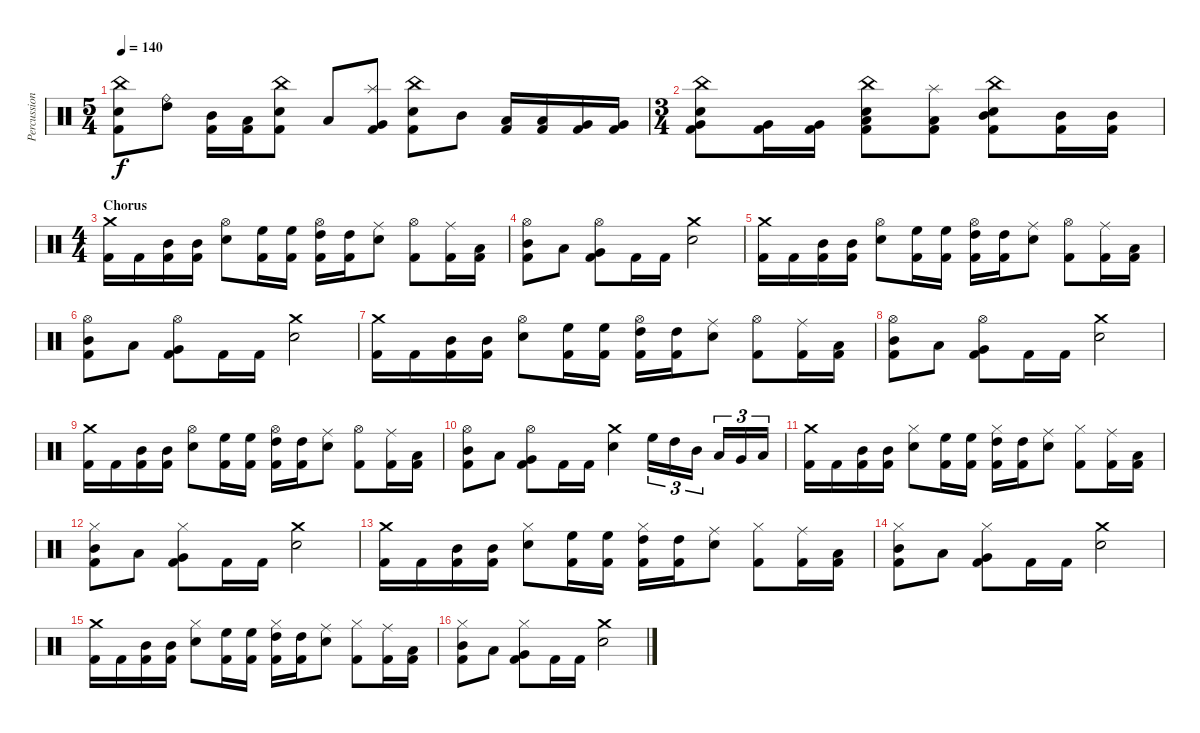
\track ("Percussion" "Percussion") {instrument percussion}
\staff {score}
\articulation defaults
\ts (5 4)
\tempo 140
\clef neutral
\ks c
("China (hit)" "Electric Snare (hit)" "Kick (hit) 2").8{dy f} ("Ride (bell)" "High Tom (hit)").8 ("Mid Tom (hit)" "Kick (hit) 2").16 ("Low Tom (hit)" "Kick (hit) 2").16 ("China (hit)" "Electric Snare (hit)" "Kick (hit) 2").8 "Low Tom (hit)".8 ("Splash (hit)" "Very Low Tom (hit)" "Kick (hit) 2").8 ("China (hit)" "Electric Snare (hit)" "Kick (hit) 2").8 "Mid Tom (hit)".8 ("Low Tom (hit)" "Kick (hit) 2").16 ("Low Tom (hit)" "Kick (hit) 2").16 ("Very Low Tom (hit)" "Kick (hit) 2").16 ("Very Low Tom (hit)" "Kick (hit) 2").16 |
\ts (3 4)
("China (hit)" "Very Low Tom (hit)" "Electric Snare (hit)" "Kick (hit) 2").8 ("Very Low Tom (hit)" "Kick (hit) 2").16 ("Very Low Tom (hit)" "Kick (hit) 2").16 ("China (hit)" "Low Tom (hit)" "Electric Snare (hit)" "Kick (hit) 2").8 ("Splash (hit)" "Low Tom (hit)" "Kick (hit) 2").8 ("China (hit)" "Mid Tom (hit)" "Electric Snare (hit)" "Kick (hit) 2").8 ("Mid Tom (hit)" "Kick (hit) 2").16 ("Mid Tom (hit)" "Kick (hit) 2").16 |
\ts (4 4)
\section ("" "Chorus")
("Crash medium (hit)" "Kick (hit) 2").16 "Kick (hit) 2".16 ("Mid Tom (hit)" "Kick (hit) 2").16 ("Mid Tom (hit)" "Kick (hit) 2").16 ("Hi-Hat (open)" "Electric Snare (hit)").8 ("High Floor Tom (hit)" "Kick (hit) 2").16 ("High Floor Tom (hit)" "Kick (hit) 2").16 ("Hi-Hat (open)" "High Tom (hit)" "Kick (hit) 2").16 ("High Tom (hit)" "Kick (hit) 2").16 ("Ride (middle)" "Electric Snare (hit)").8 ("Hi-Hat (open)" "Kick (hit) 2").8 ("Ride (middle)" "Kick (hit) 2").16 ("Low Tom (hit)" "Kick (hit) 2").16 |
("Hi-Hat (open)" "Mid Tom (hit)" "Kick (hit) 2").8 "Low Tom (hit)".8 ("Hi-Hat (open)" "Very Low Tom (hit)" "Kick (hit) 2").8 "Kick (hit) 2".16 "Kick (hit) 2".16 ("Crash medium (hit)" "Electric Snare (hit)").2 |
("Crash medium (hit)" "Kick (hit) 2").16 "Kick (hit) 2".16 ("Mid Tom (hit)" "Kick (hit) 2").16 ("Mid Tom (hit)" "Kick (hit) 2").16 ("Hi-Hat (open)" "Electric Snare (hit)").8 ("High Floor Tom (hit)" "Kick (hit) 2").16 ("High Floor Tom (hit)" "Kick (hit) 2").16 ("Hi-Hat (open)" "High Tom (hit)" "Kick (hit) 2").16 ("High Tom (hit)" "Kick (hit) 2").16 ("Ride (middle)" "Electric Snare (hit)").8 ("Hi-Hat (open)" "Kick (hit) 2").8 ("Ride (middle)" "Kick (hit) 2").16 ("Low Tom (hit)" "Kick (hit) 2").16 |
("Hi-Hat (open)" "Mid Tom (hit)" "Kick (hit) 2").8 "Low Tom (hit)".8 ("Hi-Hat (open)" "Very Low Tom (hit)" "Kick (hit) 2").8 "Kick (hit) 2".16 "Kick (hit) 2".16 ("Crash medium (hit)" "Electric Snare (hit)").2 |
("Crash medium (hit)" "Kick (hit) 2").16 "Kick (hit) 2".16 ("Mid Tom (hit)" "Kick (hit) 2").16 ("Mid Tom (hit)" "Kick (hit) 2").16 ("Hi-Hat (open)" "Electric Snare (hit)").8 ("High Floor Tom (hit)" "Kick (hit) 2").16 ("High Floor Tom (hit)" "Kick (hit) 2").16 ("Hi-Hat (open)" "High Tom (hit)" "Kick (hit) 2").16 ("High Tom (hit)" "Kick (hit) 2").16 ("Ride (middle)" "Electric Snare (hit)").8 ("Hi-Hat (open)" "Kick (hit) 2").8 ("Ride (middle)" "Kick (hit) 2").16 ("Low Tom (hit)" "Kick (hit) 2").16 |
("Hi-Hat (open)" "Mid Tom (hit)" "Kick (hit) 2").8 "Low Tom (hit)".8 ("Hi-Hat (open)" "Very Low Tom (hit)" "Kick (hit) 2").8 "Kick (hit) 2".16 "Kick (hit) 2".16 ("Crash medium (hit)" "Electric Snare (hit)").2 |
("Crash medium (hit)" "Kick (hit) 2").16 "Kick (hit) 2".16 ("Mid Tom (hit)" "Kick (hit) 2").16 ("Mid Tom (hit)" "Kick (hit) 2").16 ("Hi-Hat (open)" "Electric Snare (hit)").8 ("High Floor Tom (hit)" "Kick (hit) 2").16 ("High Floor Tom (hit)" "Kick (hit) 2").16 ("Hi-Hat (open)" "High Tom (hit)" "Kick (hit) 2").16 ("High Tom (hit)" "Kick (hit) 2").16 ("Ride (middle)" "Electric Snare (hit)").8 ("Hi-Hat (open)" "Kick (hit) 2").8 ("Ride (middle)" "Kick (hit) 2").16 ("Low Tom (hit)" "Kick (hit) 2").16 |
("Hi-Hat (open)" "Mid Tom (hit)" "Kick (hit) 2").8 "Low Tom (hit)".8 ("Hi-Hat (open)" "Very Low Tom (hit)" "Kick (hit) 2").8 "Kick (hit) 2".16 "Kick (hit) 2".16 ("Crash medium (hit)" "Electric Snare (hit)").4 "High Floor Tom (hit)".16{tu (3 2)} "High Tom (hit)".16{tu (3 2)} "Mid Tom (hit)".16{tu (3 2)} "Low Tom (hit)".16{tu (3 2)} "Very Low Tom (hit)".16{tu (3 2)} "Low Floor Tom (hit)".16{tu (3 2)} |
("Crash medium (hit)" "Kick (hit) 2").16 "Kick (hit) 2".16 ("Mid Tom (hit)" "Kick (hit) 2").16 ("Mid Tom (hit)" "Kick (hit) 2").16 ("Hi-Hat (closed)" "Electric Snare (hit)").8 ("High Floor Tom (hit)" "Kick (hit) 2").16 ("High Floor Tom (hit)" "Kick (hit) 2").16 ("Hi-Hat (closed)" "High Tom (hit)" "Kick (hit) 2").16 ("High Tom (hit)" "Kick (hit) 2").16 ("Ride (middle)" "Electric Snare (hit)").8 ("Hi-Hat (closed)" "Kick (hit) 2").8 ("Ride (middle)" "Kick (hit) 2").16 ("Low Tom (hit)" "Kick (hit) 2").16 |
("Hi-Hat (closed)" "Mid Tom (hit)" "Kick (hit) 2").8 "Low Tom (hit)".8 ("Hi-Hat (closed)" "Very Low Tom (hit)" "Kick (hit) 2").8 "Kick (hit) 2".16 "Kick (hit) 2".16 ("Crash medium (hit)" "Electric Snare (hit)").2 |
("Crash medium (hit)" "Kick (hit) 2").16 "Kick (hit) 2".16 ("Mid Tom (hit)" "Kick (hit) 2").16 ("Mid Tom (hit)" "Kick (hit) 2").16 ("Hi-Hat (closed)" "Electric Snare (hit)").8 ("High Floor Tom (hit)" "Kick (hit) 2").16 ("High Floor Tom (hit)" "Kick (hit) 2").16 ("Hi-Hat (closed)" "High Tom (hit)" "Kick (hit) 2").16 ("High Tom (hit)" "Kick (hit) 2").16 ("Ride (middle)" "Electric Snare (hit)").8 ("Hi-Hat (closed)" "Kick (hit) 2").8 ("Ride (middle)" "Kick (hit) 2").16 ("Low Tom (hit)" "Kick (hit) 2").16 |
("Hi-Hat (closed)" "Mid Tom (hit)" "Kick (hit) 2").8 "Low Tom (hit)".8 ("Hi-Hat (closed)" "Very Low Tom (hit)" "Kick (hit) 2").8 "Kick (hit) 2".16 "Kick (hit) 2".16 ("Crash medium (hit)" "Electric Snare (hit)").2 |
("Crash medium (hit)" "Kick (hit) 2").16 "Kick (hit) 2".16 ("Mid Tom (hit)" "Kick (hit) 2").16 ("Mid Tom (hit)" "Kick (hit) 2").16 ("Hi-Hat (closed)" "Electric Snare (hit)").8 ("High Floor Tom (hit)" "Kick (hit) 2").16 ("High Floor Tom (hit)" "Kick (hit) 2").16 ("Hi-Hat (closed)" "High Tom (hit)" "Kick (hit) 2").16 ("High Tom (hit)" "Kick (hit) 2").16 ("Ride (middle)" "Electric Snare (hit)").8 ("Hi-Hat (closed)" "Kick (hit) 2").8 ("Ride (middle)" "Kick (hit) 2").16 ("Low Tom (hit)" "Kick (hit) 2").16 |
("Hi-Hat (closed)" "Mid Tom (hit)" "Kick (hit) 2").8 "Low Tom (hit)".8 ("Hi-Hat (closed)" "Very Low Tom (hit)" "Kick (hit) 2").8 "Kick (hit) 2".16 "Kick (hit) 2".16 ("Crash medium (hit)" "Electric Snare (hit)").2
